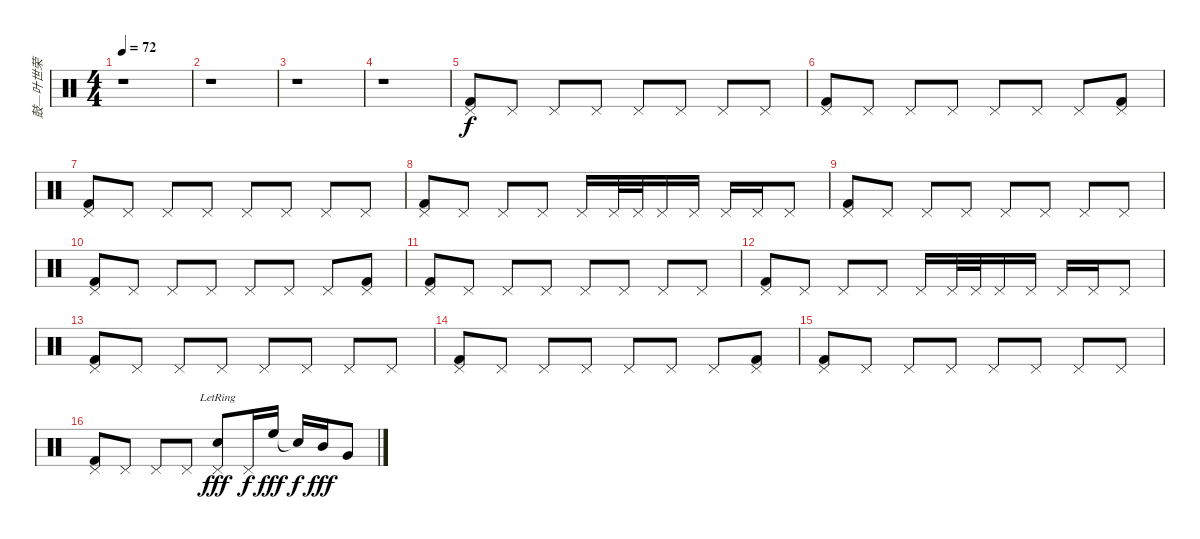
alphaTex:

\track ("鼓—叶世荣" "鼓—叶世荣") {instrument percussion}
\staff {score}
\articulation defaults
\ts (4 4)
\tempo 72
\clef neutral
\ks c
r.1{dy f} |
r.1 |
r.1 |
r.1 |
("Pedal Hi-Hat (hit)" "Kick (hit) 2").8 "Pedal Hi-Hat (hit)".8 "Pedal Hi-Hat (hit)".8 "Pedal Hi-Hat (hit)".8 "Pedal Hi-Hat (hit)".8 "Pedal Hi-Hat (hit)".8 "Pedal Hi-Hat (hit)".8 "Pedal Hi-Hat (hit)".8 |
("Pedal Hi-Hat (hit)" "Kick (hit) 2").8 "Pedal Hi-Hat (hit)".8 "Pedal Hi-Hat (hit)".8 "Pedal Hi-Hat (hit)".8 "Pedal Hi-Hat (hit)".8 "Pedal Hi-Hat (hit)".8 "Pedal Hi-Hat (hit)".8 ("Pedal Hi-Hat (hit)" "Kick (hit) 2").8 |
("Pedal Hi-Hat (hit)" "Kick (hit) 2").8 "Pedal Hi-Hat (hit)".8 "Pedal Hi-Hat (hit)".8 "Pedal Hi-Hat (hit)".8 "Pedal Hi-Hat (hit)".8 "Pedal Hi-Hat (hit)".8 "Pedal Hi-Hat (hit)".8 "Pedal Hi-Hat (hit)".8 |
("Pedal Hi-Hat (hit)" "Kick (hit) 2").8 "Pedal Hi-Hat (hit)".8 "Pedal Hi-Hat (hit)".8 "Pedal Hi-Hat (hit)".8 "Pedal Hi-Hat (hit)".16 "Pedal Hi-Hat (hit)".32 "Pedal Hi-Hat (hit)".32 "Pedal Hi-Hat (hit)".16 "Pedal Hi-Hat (hit)".16 "Pedal Hi-Hat (hit)".16 "Pedal Hi-Hat (hit)".16 "Pedal Hi-Hat (hit)".8 |
("Pedal Hi-Hat (hit)" "Kick (hit) 2").8 "Pedal Hi-Hat (hit)".8 "Pedal Hi-Hat (hit)".8 "Pedal Hi-Hat (hit)".8 "Pedal Hi-Hat (hit)".8 "Pedal Hi-Hat (hit)".8 "Pedal Hi-Hat (hit)".8 "Pedal Hi-Hat (hit)".8 |
("Pedal Hi-Hat (hit)" "Kick (hit) 2").8 "Pedal Hi-Hat (hit)".8 "Pedal Hi-Hat (hit)".8 "Pedal Hi-Hat (hit)".8 "Pedal Hi-Hat (hit)".8 "Pedal Hi-Hat (hit)".8 "Pedal Hi-Hat (hit)".8 ("Pedal Hi-Hat (hit)" "Kick (hit) 2").8 |
("Pedal Hi-Hat (hit)" "Kick (hit) 2").8 "Pedal Hi-Hat (hit)".8 "Pedal Hi-Hat (hit)".8 "Pedal Hi-Hat (hit)".8 "Pedal Hi-Hat (hit)".8 "Pedal Hi-Hat (hit)".8 "Pedal Hi-Hat (hit)".8 "Pedal Hi-Hat (hit)".8 |
("Pedal Hi-Hat (hit)" "Kick (hit) 2").8 "Pedal Hi-Hat (hit)".8 "Pedal Hi-Hat (hit)".8 "Pedal Hi-Hat (hit)".8 "Pedal Hi-Hat (hit)".16 "Pedal Hi-Hat (hit)".32 "Pedal Hi-Hat (hit)".32 "Pedal Hi-Hat (hit)".16 "Pedal Hi-Hat (hit)".16 "Pedal Hi-Hat (hit)".16 "Pedal Hi-Hat (hit)".16 "Pedal Hi-Hat (hit)".8 |
("Pedal Hi-Hat (hit)" "Kick (hit) 2").8 "Pedal Hi-Hat (hit)".8 "Pedal Hi-Hat (hit)".8 "Pedal Hi-Hat (hit)".8 "Pedal Hi-Hat (hit)".8 "Pedal Hi-Hat (hit)".8 "Pedal Hi-Hat (hit)".8 "Pedal Hi-Hat (hit)".8 |
("Pedal Hi-Hat (hit)" "Kick (hit) 2").8 "Pedal Hi-Hat (hit)".8 "Pedal Hi-Hat (hit)".8 "Pedal Hi-Hat (hit)".8 "Pedal Hi-Hat (hit)".8 "Pedal Hi-Hat (hit)".8 "Pedal Hi-Hat (hit)".8 ("Pedal Hi-Hat (hit)" "Kick (hit) 2").8 |
("Pedal Hi-Hat (hit)" "Kick (hit) 2").8 "Pedal Hi-Hat (hit)".8 "Pedal Hi-Hat (hit)".8 "Pedal Hi-Hat (hit)".8 "Pedal Hi-Hat (hit)".8 "Pedal Hi-Hat (hit)".8 "Pedal Hi-Hat (hit)".8 "Pedal Hi-Hat (hit)".8 |
("Pedal Hi-Hat (hit)" "Kick (hit) 2").8 "Pedal Hi-Hat (hit)".8 "Pedal Hi-Hat (hit)".8 "Pedal Hi-Hat (hit)".8 ("Pedal Hi-Hat (hit)" "Electric Snare (hit)"{lr}).8{dy fff} "Pedal Hi-Hat (hit)".16{dy f} "High Floor Tom (hit)".16{dy fff} "Snare (hit)"{t}.16{dy f} "Mid Tom (hit)".16{dy fff} "Very Low Tom (hit)".8
